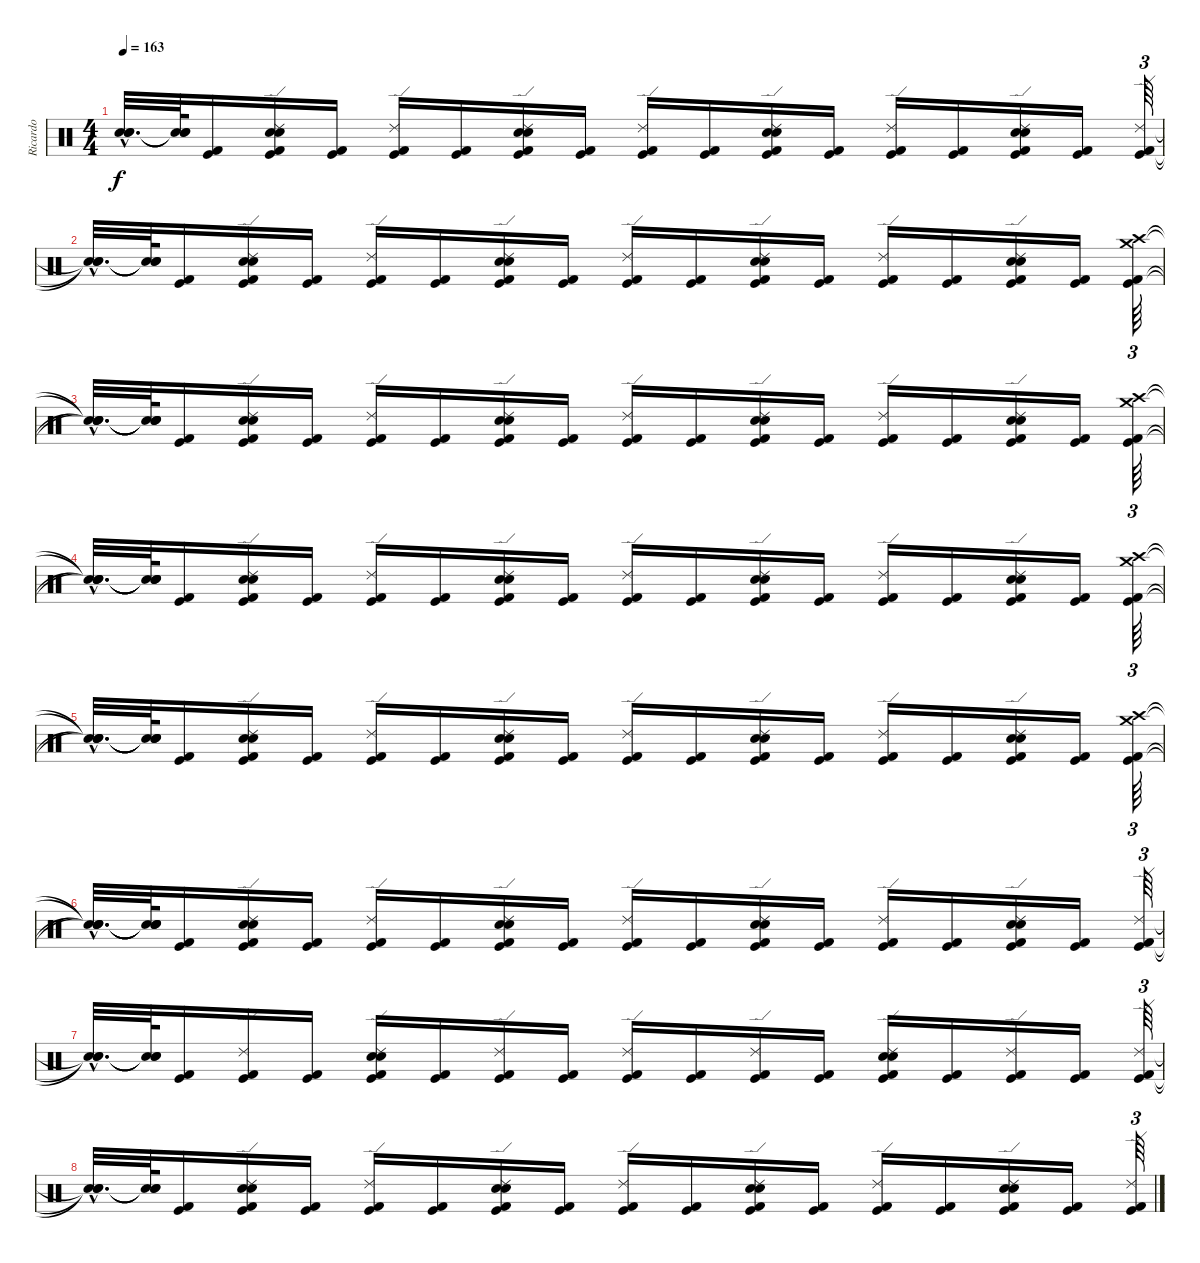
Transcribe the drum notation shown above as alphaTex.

\track ("Ricardo" "Ricardo") {instrument percussion}
\staff {score}
\articulation defaults
\ts (4 4)
\tempo 163
\clef neutral
\ks c
("Snare (hit)"{hac t} "Snare (hit)"{hac t} "Snare (hit)"{hac t}).32{d dy f} ("Snare (hit)"{t} "Snare (hit)"{t} "Snare (hit)"{t}).64 ("Kick (hit) 2" "Kick (hit)").16 ("Ride (edge) 2" "Electric Snare (hit)" "Snare (hit) 2" "Kick (hit) 2" "Kick (hit)").16 ("Kick (hit) 2" "Kick (hit)").16 ("Ride (edge) 2" "Kick (hit) 2" "Kick (hit)").16 ("Kick (hit) 2" "Kick (hit)").16 ("Ride (edge) 2" "Electric Snare (hit)" "Snare (hit) 2" "Kick (hit) 2" "Kick (hit)").16 ("Kick (hit) 2" "Kick (hit)").16 ("Ride (edge) 2" "Kick (hit) 2" "Kick (hit)").16 ("Kick (hit) 2" "Kick (hit)").16 ("Ride (edge) 2" "Electric Snare (hit)" "Snare (hit) 2" "Kick (hit) 2" "Kick (hit)").16 ("Kick (hit) 2" "Kick (hit)").16 ("Ride (edge) 2" "Kick (hit) 2" "Kick (hit)").16 ("Kick (hit) 2" "Kick (hit)").16 ("Ride (edge) 2" "Electric Snare (hit)" "Snare (hit) 2" "Kick (hit) 2" "Kick (hit)").16 ("Kick (hit) 2" "Kick (hit)").16 ("Ride (edge) 2" "Kick (hit) 2" "Kick (hit)").64{tu (3 2)} |
("Snare (hit)"{hac t} "Snare (hit)"{hac t} "Snare (hit)"{hac t}).32{d} ("Snare (hit)"{t} "Snare (hit)"{t} "Snare (hit)"{t}).64 ("Kick (hit) 2" "Kick (hit)").16 ("Ride (edge) 2" "Electric Snare (hit)" "Snare (hit) 2" "Kick (hit) 2" "Kick (hit)").16 ("Kick (hit) 2" "Kick (hit)").16 ("Ride (edge) 2" "Kick (hit) 2" "Kick (hit)").16 ("Kick (hit) 2" "Kick (hit)").16 ("Ride (edge) 2" "Electric Snare (hit)" "Snare (hit) 2" "Kick (hit) 2" "Kick (hit)").16 ("Kick (hit) 2" "Kick (hit)").16 ("Ride (edge) 2" "Kick (hit) 2" "Kick (hit)").16 ("Kick (hit) 2" "Kick (hit)").16 ("Ride (edge) 2" "Electric Snare (hit)" "Snare (hit) 2" "Kick (hit) 2" "Kick (hit)").16 ("Kick (hit) 2" "Kick (hit)").16 ("Ride (edge) 2" "Kick (hit) 2" "Kick (hit)").16 ("Kick (hit) 2" "Kick (hit)").16 ("Ride (edge) 2" "Electric Snare (hit)" "Snare (hit) 2" "Kick (hit) 2" "Kick (hit)").16 ("Kick (hit) 2" "Kick (hit)").16 ("Crash high (hit)" "Crash medium (hit)" "Kick (hit) 2" "Kick (hit)").64{tu (3 2)} |
("Snare (hit)"{hac t} "Snare (hit)"{hac t} "Snare (hit)"{hac t} "Snare (hit)"{hac t}).32{d} ("Snare (hit)"{t} "Snare (hit)"{t} "Snare (hit)"{t} "Snare (hit)"{t}).64 ("Kick (hit) 2" "Kick (hit)").16 ("Ride (edge) 2" "Electric Snare (hit)" "Snare (hit) 2" "Kick (hit) 2" "Kick (hit)").16 ("Kick (hit) 2" "Kick (hit)").16 ("Ride (edge) 2" "Kick (hit) 2" "Kick (hit)").16 ("Kick (hit) 2" "Kick (hit)").16 ("Ride (edge) 2" "Electric Snare (hit)" "Snare (hit) 2" "Kick (hit) 2" "Kick (hit)").16 ("Kick (hit) 2" "Kick (hit)").16 ("Ride (edge) 2" "Kick (hit) 2" "Kick (hit)").16 ("Kick (hit) 2" "Kick (hit)").16 ("Ride (edge) 2" "Electric Snare (hit)" "Snare (hit) 2" "Kick (hit) 2" "Kick (hit)").16 ("Kick (hit) 2" "Kick (hit)").16 ("Ride (edge) 2" "Kick (hit) 2" "Kick (hit)").16 ("Kick (hit) 2" "Kick (hit)").16 ("Ride (edge) 2" "Electric Snare (hit)" "Snare (hit) 2" "Kick (hit) 2" "Kick (hit)").16 ("Kick (hit) 2" "Kick (hit)").16 ("Crash high (hit)" "Crash medium (hit)" "Kick (hit) 2" "Kick (hit)").64{tu (3 2)} |
("Snare (hit)"{hac t} "Snare (hit)"{hac t} "Snare (hit)"{hac t} "Snare (hit)"{hac t}).32{d} ("Snare (hit)"{t} "Snare (hit)"{t} "Snare (hit)"{t} "Snare (hit)"{t}).64 ("Kick (hit) 2" "Kick (hit)").16 ("Ride (edge) 2" "Electric Snare (hit)" "Snare (hit) 2" "Kick (hit) 2" "Kick (hit)").16 ("Kick (hit) 2" "Kick (hit)").16 ("Ride (edge) 2" "Kick (hit) 2" "Kick (hit)").16 ("Kick (hit) 2" "Kick (hit)").16 ("Ride (edge) 2" "Electric Snare (hit)" "Snare (hit) 2" "Kick (hit) 2" "Kick (hit)").16 ("Kick (hit) 2" "Kick (hit)").16 ("Ride (edge) 2" "Kick (hit) 2" "Kick (hit)").16 ("Kick (hit) 2" "Kick (hit)").16 ("Ride (edge) 2" "Electric Snare (hit)" "Snare (hit) 2" "Kick (hit) 2" "Kick (hit)").16 ("Kick (hit) 2" "Kick (hit)").16 ("Ride (edge) 2" "Kick (hit) 2" "Kick (hit)").16 ("Kick (hit) 2" "Kick (hit)").16 ("Ride (edge) 2" "Electric Snare (hit)" "Snare (hit) 2" "Kick (hit) 2" "Kick (hit)").16 ("Kick (hit) 2" "Kick (hit)").16 ("Crash high (hit)" "Crash medium (hit)" "Kick (hit) 2" "Kick (hit)").64{tu (3 2)} |
("Snare (hit)"{hac t} "Snare (hit)"{hac t} "Snare (hit)"{hac t} "Snare (hit)"{hac t}).32{d} ("Snare (hit)"{t} "Snare (hit)"{t} "Snare (hit)"{t} "Snare (hit)"{t}).64 ("Kick (hit) 2" "Kick (hit)").16 ("Ride (edge) 2" "Electric Snare (hit)" "Snare (hit) 2" "Kick (hit) 2" "Kick (hit)").16 ("Kick (hit) 2" "Kick (hit)").16 ("Ride (edge) 2" "Kick (hit) 2" "Kick (hit)").16 ("Kick (hit) 2" "Kick (hit)").16 ("Ride (edge) 2" "Electric Snare (hit)" "Snare (hit) 2" "Kick (hit) 2" "Kick (hit)").16 ("Kick (hit) 2" "Kick (hit)").16 ("Ride (edge) 2" "Kick (hit) 2" "Kick (hit)").16 ("Kick (hit) 2" "Kick (hit)").16 ("Ride (edge) 2" "Electric Snare (hit)" "Snare (hit) 2" "Kick (hit) 2" "Kick (hit)").16 ("Kick (hit) 2" "Kick (hit)").16 ("Ride (edge) 2" "Kick (hit) 2" "Kick (hit)").16 ("Kick (hit) 2" "Kick (hit)").16 ("Ride (edge) 2" "Electric Snare (hit)" "Snare (hit) 2" "Kick (hit) 2" "Kick (hit)").16 ("Kick (hit) 2" "Kick (hit)").16 ("Crash high (hit)" "Crash medium (hit)" "Kick (hit) 2" "Kick (hit)").64{tu (3 2)} |
("Snare (hit)"{hac t} "Snare (hit)"{hac t} "Snare (hit)"{hac t} "Snare (hit)"{hac t}).32{d} ("Snare (hit)"{t} "Snare (hit)"{t} "Snare (hit)"{t} "Snare (hit)"{t}).64 ("Kick (hit) 2" "Kick (hit)").16 ("Ride (edge) 2" "Electric Snare (hit)" "Snare (hit) 2" "Kick (hit) 2" "Kick (hit)").16 ("Kick (hit) 2" "Kick (hit)").16 ("Ride (edge) 2" "Kick (hit) 2" "Kick (hit)").16 ("Kick (hit) 2" "Kick (hit)").16 ("Ride (edge) 2" "Electric Snare (hit)" "Snare (hit) 2" "Kick (hit) 2" "Kick (hit)").16 ("Kick (hit) 2" "Kick (hit)").16 ("Ride (edge) 2" "Kick (hit) 2" "Kick (hit)").16 ("Kick (hit) 2" "Kick (hit)").16 ("Ride (edge) 2" "Electric Snare (hit)" "Snare (hit) 2" "Kick (hit) 2" "Kick (hit)").16 ("Kick (hit) 2" "Kick (hit)").16 ("Ride (edge) 2" "Kick (hit) 2" "Kick (hit)").16 ("Kick (hit) 2" "Kick (hit)").16 ("Ride (edge) 2" "Electric Snare (hit)" "Snare (hit) 2" "Kick (hit) 2" "Kick (hit)").16 ("Kick (hit) 2" "Kick (hit)").16 ("Ride (edge) 2" "Kick (hit) 2" "Kick (hit)").64{tu (3 2)} |
("Snare (hit)"{hac t} "Snare (hit)"{hac t} "Snare (hit)"{hac t}).32{d} ("Snare (hit)"{t} "Snare (hit)"{t} "Snare (hit)"{t}).64 ("Kick (hit) 2" "Kick (hit)").16 ("Ride (edge) 2" "Kick (hit) 2" "Kick (hit)").16 ("Kick (hit) 2" "Kick (hit)").16 ("Electric Snare (hit)" "Snare (hit) 2" "Ride (edge) 2" "Kick (hit) 2" "Kick (hit)").16 ("Kick (hit) 2" "Kick (hit)").16 ("Ride (edge) 2" "Kick (hit) 2" "Kick (hit)").16 ("Kick (hit) 2" "Kick (hit)").16 ("Ride (edge) 2" "Kick (hit) 2" "Kick (hit)").16 ("Kick (hit) 2" "Kick (hit)").16 ("Ride (edge) 2" "Kick (hit) 2" "Kick (hit)").16 ("Kick (hit) 2" "Kick (hit)").16 ("Electric Snare (hit)" "Snare (hit) 2" "Ride (edge) 2" "Kick (hit) 2" "Kick (hit)").16 ("Kick (hit) 2" "Kick (hit)").16 ("Ride (edge) 2" "Kick (hit) 2" "Kick (hit)").16 ("Kick (hit) 2" "Kick (hit)").16 ("Ride (edge) 2" "Kick (hit) 2" "Kick (hit)").64{tu (3 2)} |
("Snare (hit)"{hac t} "Snare (hit)"{hac t} "Snare (hit)"{hac t}).32{d} ("Snare (hit)"{t} "Snare (hit)"{t} "Snare (hit)"{t}).64 ("Kick (hit) 2" "Kick (hit)").16 ("Ride (edge) 2" "Electric Snare (hit)" "Snare (hit) 2" "Kick (hit) 2" "Kick (hit)").16 ("Kick (hit) 2" "Kick (hit)").16 ("Ride (edge) 2" "Kick (hit) 2" "Kick (hit)").16 ("Kick (hit) 2" "Kick (hit)").16 ("Ride (edge) 2" "Electric Snare (hit)" "Snare (hit) 2" "Kick (hit) 2" "Kick (hit)").16 ("Kick (hit) 2" "Kick (hit)").16 ("Ride (edge) 2" "Kick (hit) 2" "Kick (hit)").16 ("Kick (hit) 2" "Kick (hit)").16 ("Ride (edge) 2" "Electric Snare (hit)" "Snare (hit) 2" "Kick (hit) 2" "Kick (hit)").16 ("Kick (hit) 2" "Kick (hit)").16 ("Ride (edge) 2" "Kick (hit) 2" "Kick (hit)").16 ("Kick (hit) 2" "Kick (hit)").16 ("Ride (edge) 2" "Electric Snare (hit)" "Snare (hit) 2" "Kick (hit) 2" "Kick (hit)").16 ("Kick (hit) 2" "Kick (hit)").16 ("Ride (edge) 2" "Kick (hit) 2" "Kick (hit)").64{tu (3 2)}
